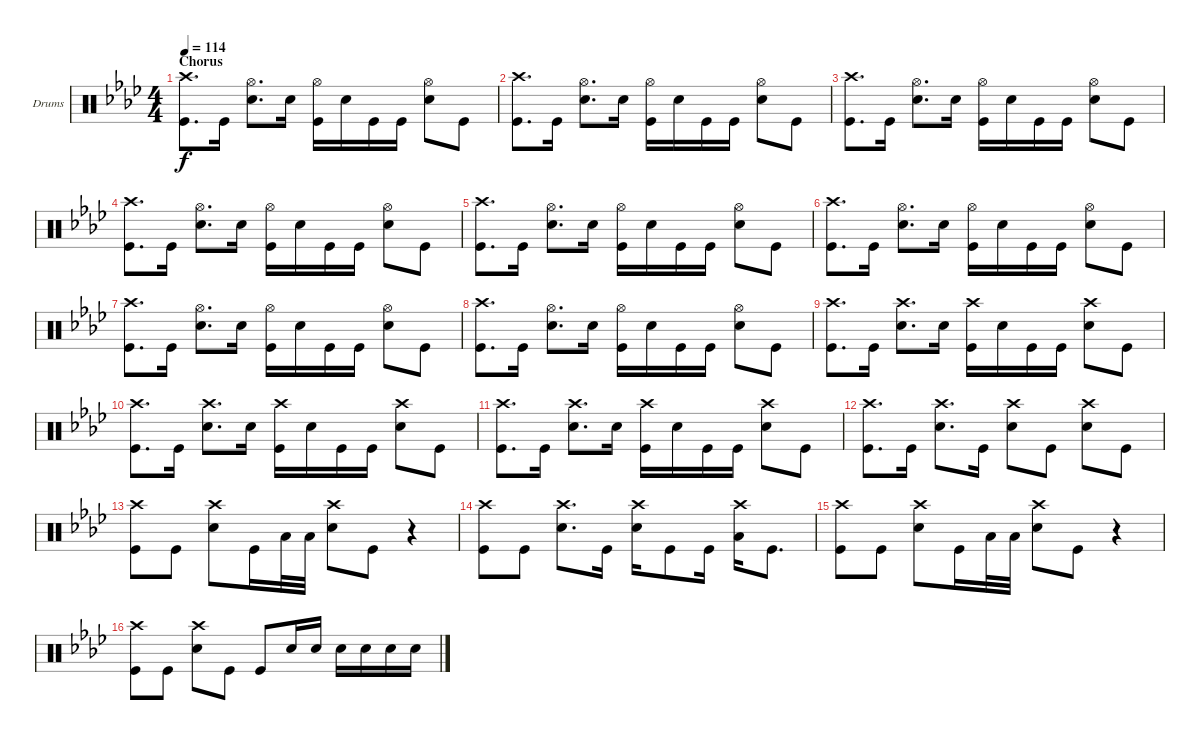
\defaultSystemsLayout 4
\bracketExtendMode groupsimilarinstruments
\firstSystemTrackNameOrientation horizontal
\otherSystemsTrackNameOrientation horizontal
\track ("Drumkit" "Drums") {instrument percussion}
\staff {score}
\articulation defaults
\ts (4 4)
\section ("" "Chorus")
\tempo 114
\clef neutral
\scale
1.06431
\ks ab
("Crash high (hit)" "Kick (hit)").8{d dy f} "Kick (hit)".16 ("Hi-Hat (open)" "Snare (hit) 2").8{d} "Snare (hit) 2".16 ("Hi-Hat (open)" "Kick (hit)").16 "Snare (hit) 2".16 "Kick (hit)".16 "Kick (hit)".16 ("Hi-Hat (open)" "Snare (hit) 2").8 "Kick (hit)".8 |
\scale
0.935687 ("Crash high (hit)" "Kick (hit)").8{d} "Kick (hit)".16 ("Hi-Hat (open)" "Snare (hit) 2").8{d} "Snare (hit) 2".16 ("Hi-Hat (open)" "Kick (hit)").16 "Snare (hit) 2".16 "Kick (hit)".16 "Kick (hit)".16 ("Hi-Hat (open)" "Snare (hit) 2").8 "Kick (hit)".8 |
\scale
1.06431 ("Crash high (hit)" "Kick (hit)").8{d} "Kick (hit)".16 ("Hi-Hat (open)" "Snare (hit) 2").8{d} "Snare (hit) 2".16 ("Hi-Hat (open)" "Kick (hit)").16 "Snare (hit) 2".16 "Kick (hit)".16 "Kick (hit)".16 ("Hi-Hat (open)" "Snare (hit) 2").8 "Kick (hit)".8 |
\scale
0.935687 ("Crash high (hit)" "Kick (hit)").8{d} "Kick (hit)".16 ("Hi-Hat (open)" "Snare (hit) 2").8{d} "Snare (hit) 2".16 ("Hi-Hat (open)" "Kick (hit)").16 "Snare (hit) 2".16 "Kick (hit)".16 "Kick (hit)".16 ("Hi-Hat (open)" "Snare (hit) 2").8 "Kick (hit)".8 |
\scale
1.06431 ("Crash high (hit)" "Kick (hit)").8{d} "Kick (hit)".16 ("Hi-Hat (open)" "Snare (hit) 2").8{d} "Snare (hit) 2".16 ("Hi-Hat (open)" "Kick (hit)").16 "Snare (hit) 2".16 "Kick (hit)".16 "Kick (hit)".16 ("Hi-Hat (open)" "Snare (hit) 2").8 "Kick (hit)".8 |
\scale
0.935687 ("Crash high (hit)" "Kick (hit)").8{d} "Kick (hit)".16 ("Hi-Hat (open)" "Snare (hit) 2").8{d} "Snare (hit) 2".16 ("Hi-Hat (open)" "Kick (hit)").16 "Snare (hit) 2".16 "Kick (hit)".16 "Kick (hit)".16 ("Hi-Hat (open)" "Snare (hit) 2").8 "Kick (hit)".8 |
\scale
1.06431 ("Crash high (hit)" "Kick (hit)").8{d} "Kick (hit)".16 ("Hi-Hat (open)" "Snare (hit) 2").8{d} "Snare (hit) 2".16 ("Hi-Hat (open)" "Kick (hit)").16 "Snare (hit) 2".16 "Kick (hit)".16 "Kick (hit)".16 ("Hi-Hat (open)" "Snare (hit) 2").8 "Kick (hit)".8 |
\scale
0.935687 ("Crash high (hit)" "Kick (hit)").8{d} "Kick (hit)".16 ("Hi-Hat (open)" "Snare (hit) 2").8{d} "Snare (hit) 2".16 ("Hi-Hat (open)" "Kick (hit)").16 "Snare (hit) 2".16 "Kick (hit)".16 "Kick (hit)".16 ("Hi-Hat (open)" "Snare (hit) 2").8 "Kick (hit)".8 |
\scale
1.06431 ("Crash high (hit)" "Kick (hit)").8{d} "Kick (hit)".16 ("Crash high (hit)" "Snare (hit) 2").8{d} "Snare (hit) 2".16 ("Crash high (hit)" "Kick (hit)").16 "Snare (hit) 2".16 "Kick (hit)".16 "Kick (hit)".16 ("Crash high (hit)" "Snare (hit) 2").8 "Kick (hit)".8 |
\scale
0.935687 ("Crash high (hit)" "Kick (hit)").8{d} "Kick (hit)".16 ("Crash high (hit)" "Snare (hit) 2").8{d} "Snare (hit) 2".16 ("Crash high (hit)" "Kick (hit)").16 "Snare (hit) 2".16 "Kick (hit)".16 "Kick (hit)".16 ("Crash high (hit)" "Snare (hit) 2").8 "Kick (hit)".8 |
\scale
1.06431 ("Crash high (hit)" "Kick (hit)").8{d} "Kick (hit)".16 ("Crash high (hit)" "Snare (hit) 2").8{d} "Snare (hit) 2".16 ("Crash high (hit)" "Kick (hit)").16 "Snare (hit) 2".16 "Kick (hit)".16 "Kick (hit)".16 ("Crash high (hit)" "Snare (hit) 2").8 "Kick (hit)".8 |
\scale
0.935687 ("Crash high (hit)" "Kick (hit)").8{d} "Kick (hit)".16 ("Crash high (hit)" "Snare (hit) 2").8{d} "Kick (hit)".16 ("Crash high (hit)" "Snare (hit) 2").8 "Kick (hit)".8 ("Crash high (hit)" "Snare (hit) 2").8 "Kick (hit)".8 |
\scale
1.06431 ("Crash high (hit)" "Kick (hit)").8 "Kick (hit)".8 ("Crash high (hit)" "Snare (hit) 2").8 "Kick (hit)".16 "Low Tom (hit)".32 "Low Tom (hit)".32 ("Crash high (hit)" "Snare (hit) 2").8 "Kick (hit)".8 r.4 |
\scale
0.935687 ("Crash high (hit)" "Kick (hit)").8 "Kick (hit)".8 ("Crash high (hit)" "Snare (hit) 2").8{d} "Kick (hit)".16 ("Crash high (hit)" "Snare (hit) 2").16 "Kick (hit)".8 "Kick (hit)".16 ("Crash high (hit)" "Low Tom (hit)").16 "Kick (hit)".8{d} |
\scale
1.06431 ("Crash high (hit)" "Kick (hit)").8 "Kick (hit)".8 ("Crash high (hit)" "Snare (hit) 2").8 "Kick (hit)".16 "Low Tom (hit)".32 "Low Tom (hit)".32 ("Crash high (hit)" "Snare (hit) 2").8 "Kick (hit)".8 r.4 |
\scale
0.935687 ("Crash high (hit)" "Kick (hit)").8 "Kick (hit)".8 ("Crash high (hit)" "Snare (hit) 2").8 "Kick (hit)".8 "Kick (hit)".8 "Snare (hit) 2".16 "Snare (hit) 2".16 "Snare (hit) 2".16 "Snare (hit) 2".16 "Snare (hit) 2".16 "Snare (hit) 2".16
